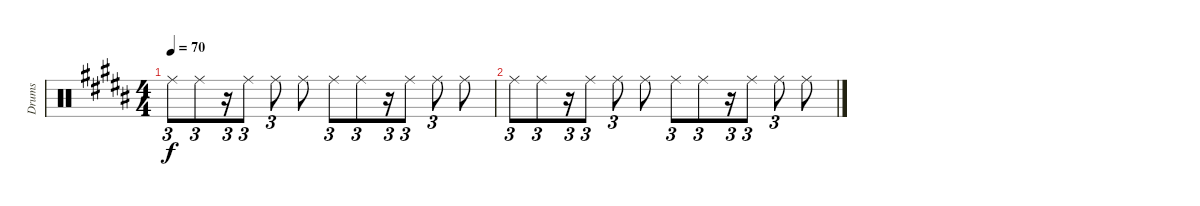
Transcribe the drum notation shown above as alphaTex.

\track ("Drums" "Drums") {instrument percussion}
\staff {score}
\articulation defaults
\ts (4 4)
\tempo 70
\clef neutral
\ks g#minor "Ride (middle)".8{tu (3 2) dy f} "Ride (middle)".8{tu (3 2)}
r.16{tu (3 2)} "Ride (middle)".8{tu (3 2)} "Ride (middle)".8{tu (3 2)} "Ride (middle)".8 "Ride (middle)".8{tu (3 2)} "Ride (middle)".8{tu (3 2)} r.16{tu (3 2)} "Ride (middle)".8{tu (3 2)} "Ride (middle)".8{tu (3 2)} "Ride (middle)".8 |
"Ride (middle)".8{tu (3 2)} "Ride (middle)".8{tu (3 2)} r.16{tu (3 2)} "Ride (middle)".8{tu (3 2)} "Ride (middle)".8{tu (3 2)} "Ride (middle)".8 "Ride (middle)".8{tu (3 2)} "Ride (middle)".8{tu (3 2)} r.16{tu (3 2)} "Ride (middle)".8{tu (3 2)} "Ride (middle)".8{tu (3 2)} "Ride (middle)".8
